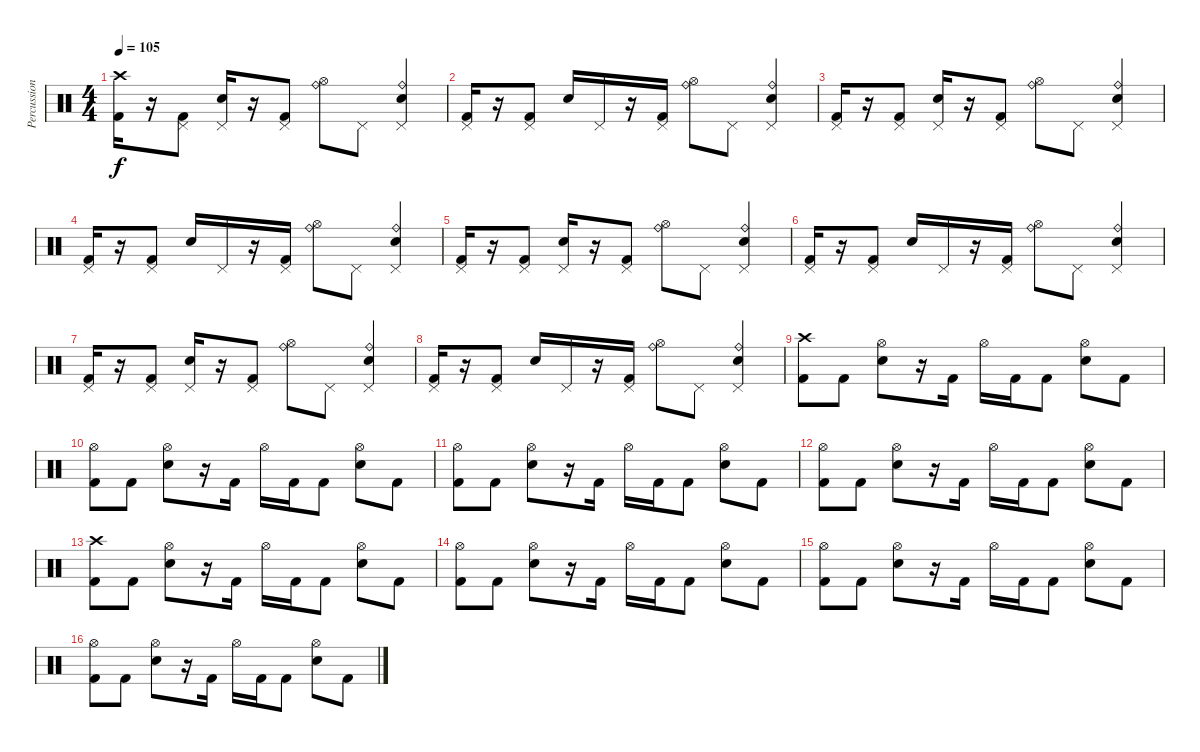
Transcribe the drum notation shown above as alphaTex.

\track ("Percussion" "Percussion") {instrument percussion}
\staff {score}
\articulation defaults
\ts (4 4)
\tempo 105
\clef neutral
\ks c
("Crash high (hit)" "Kick (hit) 2").16{dy f} r.16 ("Pedal Hi-Hat (hit)" "Kick (hit) 2").8 ("Pedal Hi-Hat (hit)" "Snare (hit) 2").16 r.16 ("Pedal Hi-Hat (hit)" "Kick (hit) 2").8 ("Ride (bell)" "Hi-Hat (open)").8 "Pedal Hi-Hat (hit)".8 ("Ride (bell)" "Pedal Hi-Hat (hit)" "Snare (hit) 2").4 |
("Pedal Hi-Hat (hit)" "Kick (hit) 2").16 r.16 ("Pedal Hi-Hat (hit)" "Kick (hit) 2").8 "Snare (hit) 2".16 "Pedal Hi-Hat (hit)".16 r.16 ("Pedal Hi-Hat (hit)" "Kick (hit) 2").16 ("Ride (bell)" "Hi-Hat (open)").8 "Pedal Hi-Hat (hit)".8 ("Ride (bell)" "Pedal Hi-Hat (hit)" "Snare (hit) 2").4 |
("Pedal Hi-Hat (hit)" "Kick (hit) 2").16 r.16 ("Pedal Hi-Hat (hit)" "Kick (hit) 2").8 ("Pedal Hi-Hat (hit)" "Snare (hit) 2").16 r.16 ("Pedal Hi-Hat (hit)" "Kick (hit) 2").8 ("Ride (bell)" "Hi-Hat (open)").8 "Pedal Hi-Hat (hit)".8 ("Ride (bell)" "Pedal Hi-Hat (hit)" "Snare (hit) 2").4 |
("Pedal Hi-Hat (hit)" "Kick (hit) 2").16 r.16 ("Pedal Hi-Hat (hit)" "Kick (hit) 2").8 "Snare (hit) 2".16 "Pedal Hi-Hat (hit)".16 r.16 ("Pedal Hi-Hat (hit)" "Kick (hit) 2").16 ("Ride (bell)" "Hi-Hat (open)").8 "Pedal Hi-Hat (hit)".8 ("Ride (bell)" "Pedal Hi-Hat (hit)" "Snare (hit) 2").4 |
("Pedal Hi-Hat (hit)" "Kick (hit) 2").16 r.16 ("Pedal Hi-Hat (hit)" "Kick (hit) 2").8 ("Pedal Hi-Hat (hit)" "Snare (hit) 2").16 r.16 ("Pedal Hi-Hat (hit)" "Kick (hit) 2").8 ("Ride (bell)" "Hi-Hat (open)").8 "Pedal Hi-Hat (hit)".8 ("Ride (bell)" "Pedal Hi-Hat (hit)" "Snare (hit) 2").4 |
("Pedal Hi-Hat (hit)" "Kick (hit) 2").16 r.16 ("Pedal Hi-Hat (hit)" "Kick (hit) 2").8 "Snare (hit) 2".16 "Pedal Hi-Hat (hit)".16 r.16 ("Pedal Hi-Hat (hit)" "Kick (hit) 2").16 ("Ride (bell)" "Hi-Hat (open)").8 "Pedal Hi-Hat (hit)".8 ("Ride (bell)" "Pedal Hi-Hat (hit)" "Snare (hit) 2").4 |
("Pedal Hi-Hat (hit)" "Kick (hit) 2").16 r.16 ("Pedal Hi-Hat (hit)" "Kick (hit) 2").8 ("Pedal Hi-Hat (hit)" "Snare (hit) 2").16 r.16 ("Pedal Hi-Hat (hit)" "Kick (hit) 2").8 ("Ride (bell)" "Hi-Hat (open)").8 "Pedal Hi-Hat (hit)".8 ("Ride (bell)" "Pedal Hi-Hat (hit)" "Snare (hit) 2").4 |
("Pedal Hi-Hat (hit)" "Kick (hit) 2").16 r.16 ("Pedal Hi-Hat (hit)" "Kick (hit) 2").8 "Snare (hit) 2".16 "Pedal Hi-Hat (hit)".16 r.16 ("Pedal Hi-Hat (hit)" "Kick (hit) 2").16 ("Ride (bell)" "Hi-Hat (open)").8 "Pedal Hi-Hat (hit)".8 ("Ride (bell)" "Pedal Hi-Hat (hit)" "Snare (hit) 2").4 |
("Crash high (hit)" "Kick (hit) 2").8 "Kick (hit) 2".8 ("Hi-Hat (open)" "Snare (hit) 2").8 r.16 "Kick (hit) 2".16 "Hi-Hat (open)".16 "Kick (hit) 2".16 "Kick (hit) 2".8 ("Hi-Hat (open)" "Snare (hit) 2").8 "Kick (hit) 2".8 |
("Hi-Hat (open)" "Kick (hit) 2").8 "Kick (hit) 2".8 ("Hi-Hat (open)" "Snare (hit) 2").8 r.16 "Kick (hit) 2".16 "Hi-Hat (open)".16 "Kick (hit) 2".16 "Kick (hit) 2".8 ("Hi-Hat (open)" "Snare (hit) 2").8 "Kick (hit) 2".8 |
("Hi-Hat (open)" "Kick (hit) 2").8 "Kick (hit) 2".8 ("Hi-Hat (open)" "Snare (hit) 2").8 r.16 "Kick (hit) 2".16 "Hi-Hat (open)".16 "Kick (hit) 2".16 "Kick (hit) 2".8 ("Hi-Hat (open)" "Snare (hit) 2").8 "Kick (hit) 2".8 |
("Hi-Hat (open)" "Kick (hit) 2").8 "Kick (hit) 2".8 ("Hi-Hat (open)" "Snare (hit) 2").8 r.16 "Kick (hit) 2".16 "Hi-Hat (open)".16 "Kick (hit) 2".16 "Kick (hit) 2".8 ("Hi-Hat (open)" "Snare (hit) 2").8 "Kick (hit) 2".8 |
("Crash high (hit)" "Kick (hit) 2").8 "Kick (hit) 2".8 ("Hi-Hat (open)" "Snare (hit) 2").8 r.16 "Kick (hit) 2".16 "Hi-Hat (open)".16 "Kick (hit) 2".16 "Kick (hit) 2".8 ("Hi-Hat (open)" "Snare (hit) 2").8 "Kick (hit) 2".8 |
("Hi-Hat (open)" "Kick (hit) 2").8 "Kick (hit) 2".8 ("Hi-Hat (open)" "Snare (hit) 2").8 r.16 "Kick (hit) 2".16 "Hi-Hat (open)".16 "Kick (hit) 2".16 "Kick (hit) 2".8 ("Hi-Hat (open)" "Snare (hit) 2").8 "Kick (hit) 2".8 |
("Hi-Hat (open)" "Kick (hit) 2").8 "Kick (hit) 2".8 ("Hi-Hat (open)" "Snare (hit) 2").8 r.16 "Kick (hit) 2".16 "Hi-Hat (open)".16 "Kick (hit) 2".16 "Kick (hit) 2".8 ("Hi-Hat (open)" "Snare (hit) 2").8 "Kick (hit) 2".8 |
("Hi-Hat (open)" "Kick (hit) 2").8 "Kick (hit) 2".8 ("Hi-Hat (open)" "Snare (hit) 2").8 r.16 "Kick (hit) 2".16 "Hi-Hat (open)".16 "Kick (hit) 2".16 "Kick (hit) 2".8 ("Hi-Hat (open)" "Snare (hit) 2").8 "Kick (hit) 2".8
